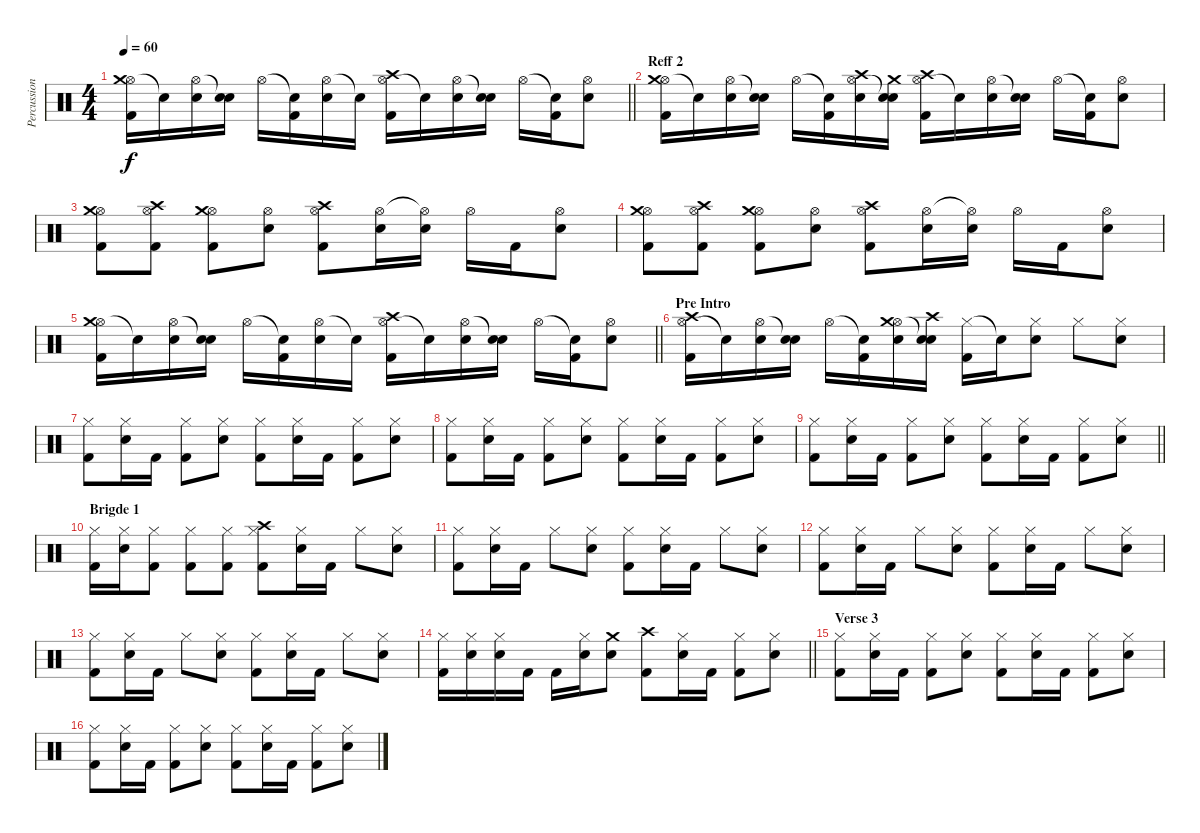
\track ("Percussion 1" "Percussion") {instrument percussion}
\staff {score}
\articulation defaults
\ts (4 4)
\tempo 60
\clef neutral
\barLineRight lightlight
\ks c
("Hi-Hat (open)" "Crash medium (hit)" "Kick (hit) 2").16{dy f} "Snare (hit)"{t}.16 ("Hi-Hat (open)" "Electric Snare (hit)").16 ("Snare (hit)"{t} "Electric Snare (hit)").16 "Hi-Hat (open)".16 ("Snare (hit)"{t} "Kick (hit) 2").16 ("Hi-Hat (open)" "Electric Snare (hit)").16 "Snare (hit)"{t}.16 ("Hi-Hat (open)" "Crash high (hit)" "Kick (hit) 2").16 "Snare (hit)"{t}.16 ("Hi-Hat (open)" "Electric Snare (hit)").16 ("Snare (hit)"{t} "Electric Snare (hit)").16 "Hi-Hat (open)".16 ("Snare (hit)"{t} "Kick (hit) 2").16 ("Hi-Hat (open)" "Electric Snare (hit)").8 |
\section ("" "Reff 2")
("Hi-Hat (open)" "Crash medium (hit)" "Kick (hit) 2").16 "Snare (hit)"{t}.16 ("Hi-Hat (open)" "Electric Snare (hit)").16 ("Snare (hit)"{t} "Electric Snare (hit)").16 "Hi-Hat (open)".16 ("Snare (hit)"{t} "Kick (hit) 2").16 ("Hi-Hat (open)" "Electric Snare (hit)" "Crash high (hit)").16 ("Snare (hit)"{t} "Electric Snare (hit)" "Crash medium (hit)").16 ("Hi-Hat (open)" "Crash high (hit)" "Kick (hit) 2").16 "Snare (hit)"{t}.16 ("Hi-Hat (open)" "Electric Snare (hit)").16 ("Snare (hit)"{t} "Electric Snare (hit)").16 "Hi-Hat (open)".16 ("Snare (hit)"{t} "Kick (hit) 2").16 ("Hi-Hat (open)" "Electric Snare (hit)").8 |
("Hi-Hat (open)" "Crash medium (hit)" "Kick (hit) 2").8 ("Hi-Hat (open)" "Crash high (hit)" "Kick (hit) 2").8 ("Hi-Hat (open)" "Crash medium (hit)" "Kick (hit) 2").8 ("Hi-Hat (open)" "Electric Snare (hit)").8 ("Hi-Hat (open)" "Crash high (hit)" "Kick (hit) 2").8 ("Hi-Hat (open)" "Electric Snare (hit)").16 ("Hi-Hat (open)"{t} "Electric Snare (hit)").16 "Hi-Hat (open)".16 "Kick (hit) 2".16 ("Hi-Hat (open)" "Electric Snare (hit)").8 |
("Hi-Hat (open)" "Crash medium (hit)" "Kick (hit) 2").8 ("Hi-Hat (open)" "Crash high (hit)" "Kick (hit) 2").8 ("Hi-Hat (open)" "Crash medium (hit)" "Kick (hit) 2").8 ("Hi-Hat (open)" "Electric Snare (hit)").8 ("Hi-Hat (open)" "Crash high (hit)" "Kick (hit) 2").8 ("Hi-Hat (open)" "Electric Snare (hit)").16 ("Hi-Hat (open)"{t} "Electric Snare (hit)").16 "Hi-Hat (open)".16 "Kick (hit) 2".16 ("Hi-Hat (open)" "Electric Snare (hit)").8 |
\barLineRight lightlight
("Hi-Hat (open)" "Crash medium (hit)" "Kick (hit) 2").16 "Snare (hit)"{t}.16 ("Hi-Hat (open)" "Electric Snare (hit)").16 ("Snare (hit)"{t} "Electric Snare (hit)").16 "Hi-Hat (open)".16 ("Snare (hit)"{t} "Kick (hit) 2").16 ("Hi-Hat (open)" "Electric Snare (hit)").16 "Snare (hit)"{t}.16 ("Hi-Hat (open)" "Crash high (hit)" "Kick (hit) 2").16 "Snare (hit)"{t}.16 ("Hi-Hat (open)" "Electric Snare (hit)").16 ("Snare (hit)"{t} "Electric Snare (hit)").16 "Hi-Hat (open)".16 ("Snare (hit)"{t} "Kick (hit) 2").16 ("Hi-Hat (open)" "Electric Snare (hit)").8 |
\section ("" "Pre Intro")
("Hi-Hat (open)" "Crash high (hit)" "Kick (hit) 2").16 "Snare (hit)"{t}.16 ("Hi-Hat (open)" "Electric Snare (hit)").16 ("Snare (hit)"{t} "Electric Snare (hit)").16 "Hi-Hat (open)".16 ("Snare (hit)"{t} "Kick (hit) 2").16 ("Hi-Hat (open)" "Electric Snare (hit)" "Crash medium (hit)").16 ("Snare (hit)"{t} "Electric Snare (hit)" "Crash high (hit)").16 ("Hi-Hat (closed)" "Kick (hit) 2").16 "Snare (hit)"{t}.16 ("Hi-Hat (closed)" "Electric Snare (hit)").8 "Hi-Hat (closed)".8 ("Hi-Hat (closed)" "Electric Snare (hit)").8 |
("Hi-Hat (closed)" "Kick (hit) 2").8 ("Hi-Hat (closed)" "Electric Snare (hit)").16 "Kick (hit) 2".16 ("Hi-Hat (closed)" "Kick (hit) 2").8 ("Hi-Hat (closed)" "Electric Snare (hit)").8 ("Hi-Hat (closed)" "Kick (hit) 2").8 ("Hi-Hat (closed)" "Electric Snare (hit)").16 "Kick (hit) 2".16 ("Hi-Hat (closed)" "Kick (hit) 2").8 ("Hi-Hat (closed)" "Electric Snare (hit)").8 |
("Hi-Hat (closed)" "Kick (hit) 2").8 ("Hi-Hat (closed)" "Electric Snare (hit)").16 "Kick (hit) 2".16 ("Hi-Hat (closed)" "Kick (hit) 2").8 ("Hi-Hat (closed)" "Electric Snare (hit)").8 ("Hi-Hat (closed)" "Kick (hit) 2").8 ("Hi-Hat (closed)" "Electric Snare (hit)").16 "Kick (hit) 2".16 ("Hi-Hat (closed)" "Kick (hit) 2").8 ("Hi-Hat (closed)" "Electric Snare (hit)").8 |
\barLineRight lightlight
("Hi-Hat (closed)" "Kick (hit) 2").8 ("Hi-Hat (closed)" "Electric Snare (hit)").16 "Kick (hit) 2".16 ("Hi-Hat (closed)" "Kick (hit) 2").8 ("Hi-Hat (closed)" "Electric Snare (hit)").8 ("Hi-Hat (closed)" "Kick (hit) 2").8 ("Hi-Hat (closed)" "Electric Snare (hit)").16 "Kick (hit) 2".16 ("Hi-Hat (closed)" "Kick (hit) 2").8 ("Hi-Hat (closed)" "Electric Snare (hit)").8 |
\section ("" "Brigde 1")
("Hi-Hat (closed)" "Kick (hit) 2").16 ("Hi-Hat (closed)" "Electric Snare (hit)").16 ("Hi-Hat (closed)" "Kick (hit) 2").8 ("Hi-Hat (closed)" "Kick (hit) 2").8 ("Hi-Hat (closed)" "Kick (hit) 2").8 ("Hi-Hat (closed)" "Crash high (hit)" "Kick (hit) 2").8 ("Hi-Hat (closed)" "Electric Snare (hit)").16 "Kick (hit) 2".16 "Hi-Hat (closed)".8 ("Hi-Hat (closed)" "Electric Snare (hit)").8 |
("Hi-Hat (closed)" "Kick (hit) 2").8 ("Hi-Hat (closed)" "Electric Snare (hit)").16 "Kick (hit) 2".16 "Hi-Hat (closed)".8 ("Hi-Hat (closed)" "Electric Snare (hit)").8 ("Hi-Hat (closed)" "Kick (hit) 2").8 ("Hi-Hat (closed)" "Electric Snare (hit)").16 "Kick (hit) 2".16 "Hi-Hat (closed)".8 ("Hi-Hat (closed)" "Electric Snare (hit)").8 |
("Hi-Hat (closed)" "Kick (hit) 2").8 ("Hi-Hat (closed)" "Electric Snare (hit)").16 "Kick (hit) 2".16 "Hi-Hat (closed)".8 ("Hi-Hat (closed)" "Electric Snare (hit)").8 ("Hi-Hat (closed)" "Kick (hit) 2").8 ("Hi-Hat (closed)" "Electric Snare (hit)").16 "Kick (hit) 2".16 "Hi-Hat (closed)".8 ("Hi-Hat (closed)" "Electric Snare (hit)").8 |
("Hi-Hat (closed)" "Kick (hit) 2").8 ("Hi-Hat (closed)" "Electric Snare (hit)").16 "Kick (hit) 2".16 "Hi-Hat (closed)".8 ("Hi-Hat (closed)" "Electric Snare (hit)").8 ("Hi-Hat (closed)" "Kick (hit) 2").8 ("Hi-Hat (closed)" "Electric Snare (hit)").16 "Kick (hit) 2".16 "Hi-Hat (closed)".8 ("Hi-Hat (closed)" "Electric Snare (hit)").8 |
\barLineRight lightlight
("Hi-Hat (closed)" "Kick (hit) 2").16 ("Hi-Hat (closed)" "Electric Snare (hit)").16 ("Hi-Hat (closed)" "Electric Snare (hit)").16 "Kick (hit) 2".16 "Kick (hit) 2".16 ("Hi-Hat (closed)" "Electric Snare (hit)").16 ("Electric Snare (hit)" "Crash medium (hit)").8 ("Crash high (hit)" "Kick (hit) 2").8 ("Hi-Hat (closed)" "Electric Snare (hit)").16 "Kick (hit) 2".16 ("Hi-Hat (closed)" "Kick (hit) 2").8 ("Hi-Hat (closed)" "Electric Snare (hit)").8 |
\section ("" "Verse 3")
("Hi-Hat (closed)" "Kick (hit) 2").8 ("Hi-Hat (closed)" "Electric Snare (hit)").16 "Kick (hit) 2".16 ("Hi-Hat (closed)" "Kick (hit) 2").8 ("Hi-Hat (closed)" "Electric Snare (hit)").8 ("Hi-Hat (closed)" "Kick (hit) 2").8 ("Hi-Hat (closed)" "Electric Snare (hit)").16 "Kick (hit) 2".16 ("Hi-Hat (closed)" "Kick (hit) 2").8 ("Hi-Hat (closed)" "Electric Snare (hit)").8 |
("Hi-Hat (closed)" "Kick (hit) 2").8 ("Hi-Hat (closed)" "Electric Snare (hit)").16 "Kick (hit) 2".16 ("Hi-Hat (closed)" "Kick (hit) 2").8 ("Hi-Hat (closed)" "Electric Snare (hit)").8 ("Hi-Hat (closed)" "Kick (hit) 2").8 ("Hi-Hat (closed)" "Electric Snare (hit)").16 "Kick (hit) 2".16 ("Hi-Hat (closed)" "Kick (hit) 2").8 ("Hi-Hat (closed)" "Electric Snare (hit)").8
